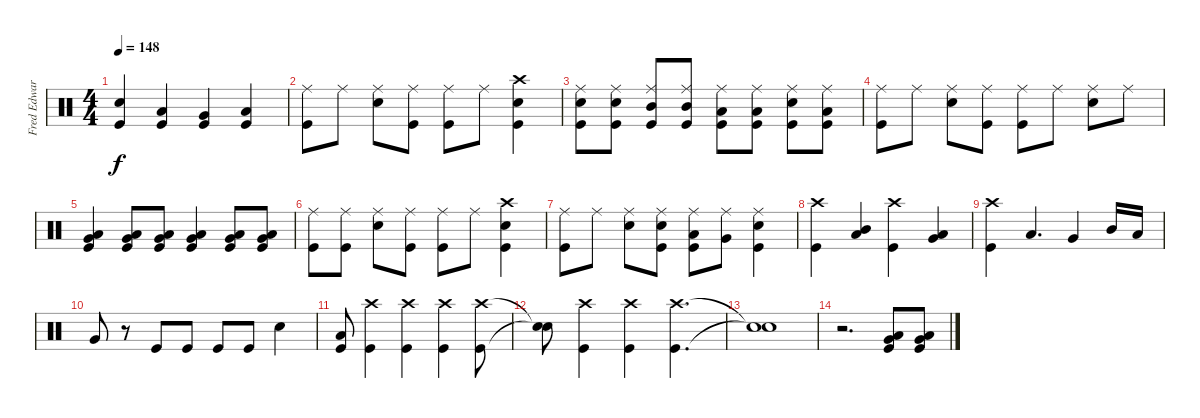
\track ("Fred Edwards Drums" "Fred Edwar") {instrument percussion}
\staff {score}
\articulation defaults
\ts (4 4)
\tempo 148
\clef neutral
\ks c
("Snare (hit) 2" "Kick (hit)").4{dy f} ("Low Tom (hit)" "Kick (hit)").4 ("Very Low Tom (hit)" "Kick (hit)").4 ("Low Floor Tom (hit)" "Kick (hit)").4 |
("Ride (middle)" "Kick (hit)").8 "Ride (middle)".8 ("Ride (middle)" "Snare (hit) 2").8 ("Ride (middle)" "Kick (hit)").8 ("Ride (middle)" "Kick (hit)").8 "Ride (middle)".8 ("Crash high (hit)" "Snare (hit) 2" "Kick (hit)").4 |
("Ride (middle)" "Snare (hit) 2" "Kick (hit)").8 ("Ride (middle)" "Snare (hit) 2" "Kick (hit)").8 ("Ride (middle)" "Mid Tom (hit)" "Kick (hit)").8 ("Ride (middle)" "Mid Tom (hit)" "Kick (hit)").8 ("Ride (middle)" "Low Tom (hit)" "Kick (hit)").8 ("Ride (middle)" "Low Tom (hit)" "Kick (hit)").8 ("Ride (middle)" "Snare (hit) 2" "Kick (hit)").8 ("Ride (middle)" "Low Tom (hit)" "Kick (hit)").8 |
("Ride (middle)" "Kick (hit)").8 "Ride (middle)".8 ("Ride (middle)" "Snare (hit) 2").8 ("Ride (middle)" "Kick (hit)").8 ("Ride (middle)" "Kick (hit)").8 "Ride (middle)".8 ("Ride (middle)" "Snare (hit) 2").8 "Ride (middle)".8 |
("Very Low Tom (hit)" "Low Floor Tom (hit)" "Kick (hit)").4 ("Very Low Tom (hit)" "Low Floor Tom (hit)" "Kick (hit)").8 ("Very Low Tom (hit)" "Low Floor Tom (hit)" "Kick (hit)").8 ("Very Low Tom (hit)" "Low Floor Tom (hit)" "Kick (hit)").4 ("Very Low Tom (hit)" "Low Floor Tom (hit)" "Kick (hit)").8 ("Very Low Tom (hit)" "Low Floor Tom (hit)" "Kick (hit)").8 |
("Ride (middle)" "Kick (hit)").8 ("Ride (middle)" "Kick (hit)").8 ("Ride (middle)" "Snare (hit) 2").8 ("Ride (middle)" "Kick (hit)").8 ("Ride (middle)" "Kick (hit)").8 "Ride (middle)".8 ("Crash high (hit)" "Snare (hit) 2" "Kick (hit)").4 |
("Ride (middle)" "Kick (hit)").8 "Ride (middle)".8 ("Ride (middle)" "Snare (hit) 2").8 ("Ride (middle)" "Snare (hit) 2" "Kick (hit)").8 ("Ride (middle)" "Low Tom (hit)" "Kick (hit)").8 ("Ride (middle)" "Very Low Tom (hit)").8 ("Ride (middle)" "Snare (hit) 2" "Kick (hit)").4 |
("Crash high (hit)" "Kick (hit)").4 ("Mid Tom (hit)" "Low Tom (hit)").4 ("Crash high (hit)" "Kick (hit)").4 ("Low Tom (hit)" "Very Low Tom (hit)").4 |
("Crash high (hit)" "Kick (hit)").4 "Low Tom (hit)".4{d} "Very Low Tom (hit)".4 "Mid Tom (hit)".16 "Low Tom (hit)".16 |
"Very Low Tom (hit)".8 r.8 "Kick (hit)".8 "Kick (hit)".8 "Kick (hit)".8 "Kick (hit)".8 "Snare (hit) 2".4 |
("Low Tom (hit)" "Kick (hit)").8 ("Crash high (hit)" "Kick (hit)").4 ("Crash high (hit)" "Kick (hit)").4 ("Crash high (hit)" "Kick (hit)").4 ("Crash high (hit)" "Kick (hit)").8 |
("Snare (hit)"{t} "Snare (hit)"{t}).8 ("Crash high (hit)" "Kick (hit)").4 ("Crash high (hit)" "Kick (hit)").4 ("Crash high (hit)" "Kick (hit)").4{d} |
("Snare (hit)"{t} "Snare (hit)"{t}).1 |
r.2{d} ("Very Low Tom (hit)" "Low Floor Tom (hit)" "Kick (hit)").8 ("Very Low Tom (hit)" "Low Floor Tom (hit)" "Kick (hit)").8
